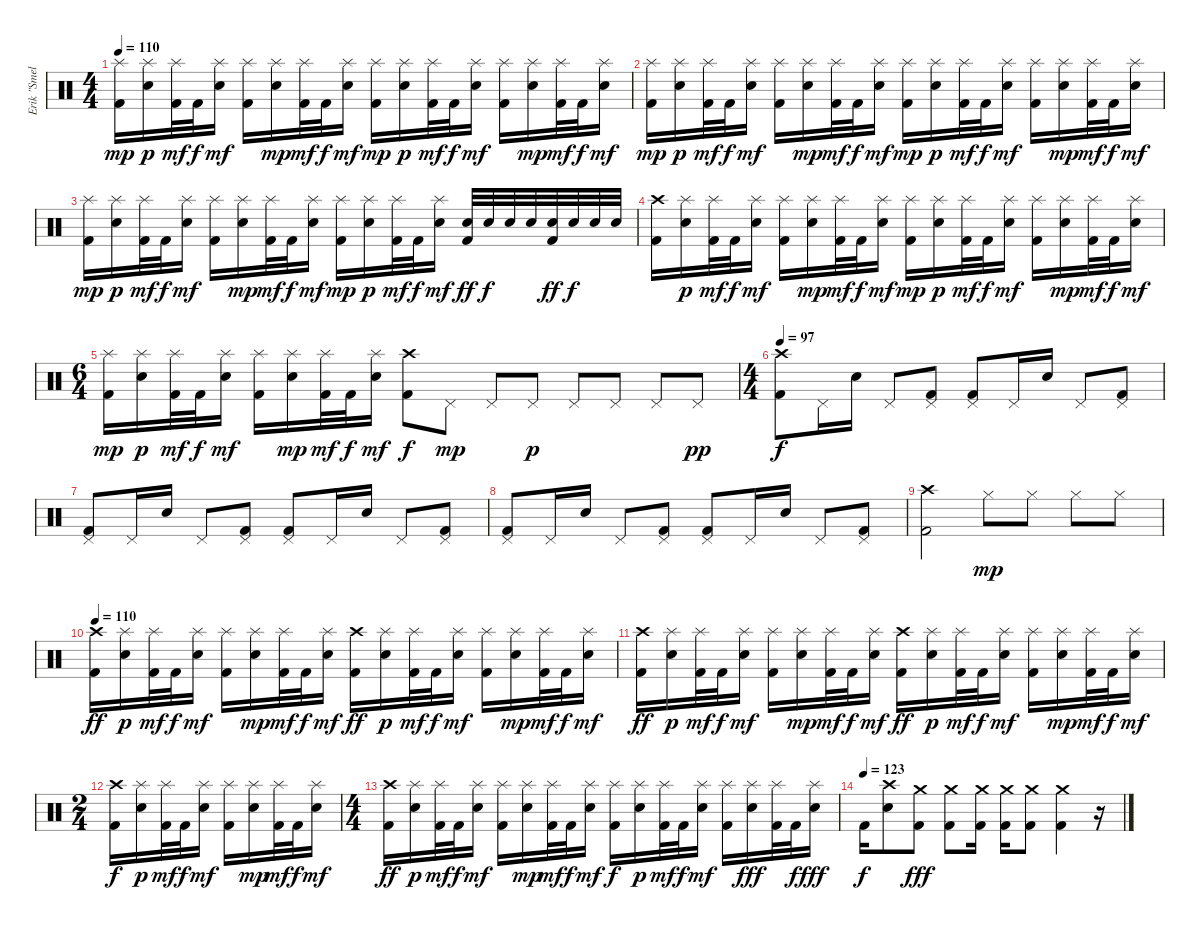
\track ("Erik \"Smelly\" - Drums" "Erik \"Smel") {instrument percussion}
\staff {score}
\articulation defaults
\ts (4 4)
\tempo 110
\clef neutral
\ks c
("Splash (hit)" "Kick (hit) 2").16{dy mp} ("Splash (hit)" "Electric Snare (hit)").16{dy p} ("Splash (hit)" "Kick (hit) 2").32{dy mf} "Kick (hit) 2".32{dy f} ("Splash (hit)" "Electric Snare (hit)").16{dy mf} ("Splash (hit)" "Kick (hit) 2").16 ("Splash (hit)" "Electric Snare (hit)").16{dy mp} ("Splash (hit)" "Kick (hit) 2").32{dy mf} "Kick (hit) 2".32{dy f} ("Splash (hit)" "Electric Snare (hit)").16{dy mf} ("Splash (hit)" "Kick (hit) 2").16{dy mp} ("Splash (hit)" "Electric Snare (hit)").16{dy p} ("Splash (hit)" "Kick (hit) 2").32{dy mf} "Kick (hit) 2".32{dy f} ("Splash (hit)" "Electric Snare (hit)").16{dy mf} ("Splash (hit)" "Kick (hit) 2").16 ("Splash (hit)" "Electric Snare (hit)").16{dy mp} ("Splash (hit)" "Kick (hit) 2").32{dy mf} "Kick (hit) 2".32{dy f} ("Splash (hit)" "Electric Snare (hit)").16{dy mf} |
("Splash (hit)" "Kick (hit) 2").16{dy mp} ("Splash (hit)" "Electric Snare (hit)").16{dy p} ("Splash (hit)" "Kick (hit) 2").32{dy mf} "Kick (hit) 2".32{dy f} ("Splash (hit)" "Electric Snare (hit)").16{dy mf} ("Splash (hit)" "Kick (hit) 2").16 ("Splash (hit)" "Electric Snare (hit)").16{dy mp} ("Splash (hit)" "Kick (hit) 2").32{dy mf} "Kick (hit) 2".32{dy f} ("Splash (hit)" "Electric Snare (hit)").16{dy mf} ("Splash (hit)" "Kick (hit) 2").16{dy mp} ("Splash (hit)" "Electric Snare (hit)").16{dy p} ("Splash (hit)" "Kick (hit) 2").32{dy mf} "Kick (hit) 2".32{dy f} ("Splash (hit)" "Electric Snare (hit)").16{dy mf} ("Splash (hit)" "Kick (hit) 2").16 ("Splash (hit)" "Electric Snare (hit)").16{dy mp} ("Splash (hit)" "Kick (hit) 2").32{dy mf} "Kick (hit) 2".32{dy f} ("Splash (hit)" "Electric Snare (hit)").16{dy mf} |
("Splash (hit)" "Kick (hit) 2").16{dy mp} ("Splash (hit)" "Electric Snare (hit)").16{dy p} ("Splash (hit)" "Kick (hit) 2").32{dy mf} "Kick (hit) 2".32{dy f} ("Splash (hit)" "Electric Snare (hit)").16{dy mf} ("Splash (hit)" "Kick (hit) 2").16 ("Splash (hit)" "Electric Snare (hit)").16{dy mp} ("Splash (hit)" "Kick (hit) 2").32{dy mf} "Kick (hit) 2".32{dy f} ("Splash (hit)" "Electric Snare (hit)").16{dy mf} ("Splash (hit)" "Kick (hit) 2").16{dy mp} ("Splash (hit)" "Electric Snare (hit)").16{dy p} ("Splash (hit)" "Kick (hit) 2").32{dy mf} "Kick (hit) 2".32{dy f} ("Splash (hit)" "Electric Snare (hit)").16{dy mf} ("Electric Snare (hit)" "Kick (hit) 2").32{dy ff} "Electric Snare (hit)".32{dy f} "Electric Snare (hit)".32 "Electric Snare (hit)".32 ("Electric Snare (hit)" "Kick (hit) 2").32{dy ff} "Electric Snare (hit)".32{dy f} "Electric Snare (hit)".32 "Electric Snare (hit)".32 |
("Crash high (hit)" "Kick (hit) 2").16 ("Splash (hit)" "Electric Snare (hit)").16{dy p} ("Splash (hit)" "Kick (hit) 2").32{dy mf} "Kick (hit) 2".32{dy f} ("Splash (hit)" "Electric Snare (hit)").16{dy mf} ("Splash (hit)" "Kick (hit) 2").16 ("Splash (hit)" "Electric Snare (hit)").16{dy mp} ("Splash (hit)" "Kick (hit) 2").32{dy mf} "Kick (hit) 2".32{dy f} ("Splash (hit)" "Electric Snare (hit)").16{dy mf} ("Splash (hit)" "Kick (hit) 2").16{dy mp} ("Splash (hit)" "Electric Snare (hit)").16{dy p} ("Splash (hit)" "Kick (hit) 2").32{dy mf} "Kick (hit) 2".32{dy f} ("Splash (hit)" "Electric Snare (hit)").16{dy mf} ("Splash (hit)" "Kick (hit) 2").16 ("Splash (hit)" "Electric Snare (hit)").16{dy mp} ("Splash (hit)" "Kick (hit) 2").32{dy mf} "Kick (hit) 2".32{dy f} ("Splash (hit)" "Electric Snare (hit)").16{dy mf} |
\ts (6 4)
("Splash (hit)" "Kick (hit) 2").16{dy mp} ("Splash (hit)" "Electric Snare (hit)").16{dy p} ("Splash (hit)" "Kick (hit) 2").32{dy mf} "Kick (hit) 2".32{dy f} ("Splash (hit)" "Electric Snare (hit)").16{dy mf} ("Splash (hit)" "Kick (hit) 2").16 ("Splash (hit)" "Electric Snare (hit)").16{dy mp} ("Splash (hit)" "Kick (hit) 2").32{dy mf} "Kick (hit) 2".32{dy f} ("Splash (hit)" "Electric Snare (hit)").16{dy mf} ("Crash high (hit)" "Kick (hit) 2").8{dy f} "Pedal Hi-Hat (hit)".8{dy mp} "Pedal Hi-Hat (hit)".8 "Pedal Hi-Hat (hit)".8{dy p} "Pedal Hi-Hat (hit)".8 "Pedal Hi-Hat (hit)".8 "Pedal Hi-Hat (hit)".8 "Pedal Hi-Hat (hit)".8{dy pp} |
\ts (4 4)
\tempo 97
("Crash high (hit)" "Kick (hit) 2").8{dy f} "Pedal Hi-Hat (hit)".16 "Electric Snare (hit)".16 "Pedal Hi-Hat (hit)".8 ("Pedal Hi-Hat (hit)" "Kick (hit) 2").8 ("Pedal Hi-Hat (hit)" "Kick (hit) 2").8 "Pedal Hi-Hat (hit)".16 "Electric Snare (hit)".16 "Pedal Hi-Hat (hit)".8 ("Pedal Hi-Hat (hit)" "Kick (hit) 2").8 |
("Pedal Hi-Hat (hit)" "Kick (hit) 2").8 "Pedal Hi-Hat (hit)".16 "Electric Snare (hit)".16 "Pedal Hi-Hat (hit)".8 ("Pedal Hi-Hat (hit)" "Kick (hit) 2").8 ("Pedal Hi-Hat (hit)" "Kick (hit) 2").8 "Pedal Hi-Hat (hit)".16 "Electric Snare (hit)".16 "Pedal Hi-Hat (hit)".8 ("Pedal Hi-Hat (hit)" "Kick (hit) 2").8 |
("Pedal Hi-Hat (hit)" "Kick (hit) 2").8 "Pedal Hi-Hat (hit)".16 "Electric Snare (hit)".16 "Pedal Hi-Hat (hit)".8 ("Pedal Hi-Hat (hit)" "Kick (hit) 2").8 ("Pedal Hi-Hat (hit)" "Kick (hit) 2").8 "Pedal Hi-Hat (hit)".16 "Electric Snare (hit)".16 "Pedal Hi-Hat (hit)".8 ("Pedal Hi-Hat (hit)" "Kick (hit) 2").8 |
("Crash high (hit)" "Kick (hit) 2").2 "Hi-Hat (closed)".8{dy mp} "Hi-Hat (closed)".8 "Hi-Hat (closed)".8 "Hi-Hat (closed)".8 |
\tempo 110
("Crash high (hit)" "Kick (hit) 2").16{dy ff} ("Splash (hit)" "Electric Snare (hit)").16{dy p} ("Splash (hit)" "Kick (hit) 2").32{dy mf} "Kick (hit) 2".32{dy f} ("Splash (hit)" "Electric Snare (hit)").16{dy mf} ("Splash (hit)" "Kick (hit) 2").16 ("Splash (hit)" "Electric Snare (hit)").16{dy mp} ("Splash (hit)" "Kick (hit) 2").32{dy mf} "Kick (hit) 2".32{dy f} ("Splash (hit)" "Electric Snare (hit)").16{dy mf} ("Crash high (hit)" "Kick (hit) 2").16{dy ff} ("Splash (hit)" "Electric Snare (hit)").16{dy p} ("Splash (hit)" "Kick (hit) 2").32{dy mf} "Kick (hit) 2".32{dy f} ("Splash (hit)" "Electric Snare (hit)").16{dy mf} ("Splash (hit)" "Kick (hit) 2").16 ("Splash (hit)" "Electric Snare (hit)").16{dy mp} ("Splash (hit)" "Kick (hit) 2").32{dy mf} "Kick (hit) 2".32{dy f} ("Splash (hit)" "Electric Snare (hit)").16{dy mf} |
("Crash high (hit)" "Kick (hit) 2").16{dy ff} ("Splash (hit)" "Electric Snare (hit)").16{dy p} ("Splash (hit)" "Kick (hit) 2").32{dy mf} "Kick (hit) 2".32{dy f} ("Splash (hit)" "Electric Snare (hit)").16{dy mf} ("Splash (hit)" "Kick (hit) 2").16 ("Splash (hit)" "Electric Snare (hit)").16{dy mp} ("Splash (hit)" "Kick (hit) 2").32{dy mf} "Kick (hit) 2".32{dy f} ("Splash (hit)" "Electric Snare (hit)").16{dy mf} ("Crash high (hit)" "Kick (hit) 2").16{dy ff} ("Splash (hit)" "Electric Snare (hit)").16{dy p} ("Splash (hit)" "Kick (hit) 2").32{dy mf} "Kick (hit) 2".32{dy f} ("Splash (hit)" "Electric Snare (hit)").16{dy mf} ("Splash (hit)" "Kick (hit) 2").16 ("Splash (hit)" "Electric Snare (hit)").16{dy mp} ("Splash (hit)" "Kick (hit) 2").32{dy mf} "Kick (hit) 2".32{dy f} ("Splash (hit)" "Electric Snare (hit)").16{dy mf} |
\ts (2 4)
("Crash high (hit)" "Kick (hit) 2").16{dy f} ("Splash (hit)" "Electric Snare (hit)").16{dy p} ("Splash (hit)" "Kick (hit) 2").32{dy mf} "Kick (hit) 2".32{dy f} ("Splash (hit)" "Electric Snare (hit)").16{dy mf} ("Splash (hit)" "Kick (hit) 2").16 ("Splash (hit)" "Electric Snare (hit)").16{dy mp} ("Splash (hit)" "Kick (hit) 2").32{dy mf} "Kick (hit) 2".32{dy f} ("Splash (hit)" "Electric Snare (hit)").16{dy mf} |
\ts (4 4)
("Crash high (hit)" "Kick (hit) 2").16{dy ff} ("Splash (hit)" "Electric Snare (hit)").16{dy p} ("Splash (hit)" "Kick (hit) 2").32{dy mf} "Kick (hit) 2".32{dy f} ("Splash (hit)" "Electric Snare (hit)").16{dy mf} ("Splash (hit)" "Kick (hit) 2").16 ("Splash (hit)" "Electric Snare (hit)").16{dy mp} ("Splash (hit)" "Kick (hit) 2").32{dy mf} "Kick (hit) 2".32{dy f} ("Splash (hit)" "Electric Snare (hit)").16{dy mf} ("Splash (hit)" "Kick (hit) 2").16{dy f} ("Splash (hit)" "Electric Snare (hit)").16{dy p} ("Splash (hit)" "Kick (hit) 2").32{dy mf} "Kick (hit) 2".32{dy f} ("Splash (hit)" "Electric Snare (hit)").16{dy mf} ("Splash (hit)" "Kick (hit) 2").16 ("Splash (hit)" "Electric Snare (hit)").16{dy fff} ("Splash (hit)" "Kick (hit) 2").32 "Kick (hit) 2".32{dy f} ("Splash (hit)" "Electric Snare (hit)").16{dy fff} |
\tempo (123)
"Kick (hit) 2".16{dy f} ("Crash high (hit)" "Electric Snare (hit)").8 ("Crash medium (hit)" "Kick (hit) 2").8{dy fff} ("Crash medium (hit)" "Kick (hit) 2").8 ("Crash medium (hit)" "Kick (hit) 2").16 ("Crash medium (hit)" "Kick (hit) 2").16 ("Crash medium (hit)" "Kick (hit) 2").8 ("Crash medium (hit)" "Kick (hit) 2").4 r.16
